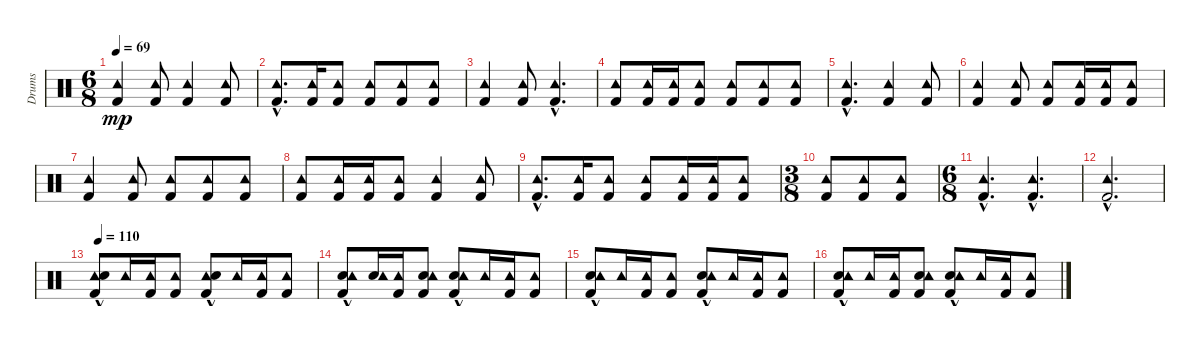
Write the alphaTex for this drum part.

\track ("Drums" "Drums") {instrument percussion}
\staff {score}
\articulation defaults
\ts (6 8)
\tempo 69
\clef neutral
\ks c
("Tambourine (hit)" "Kick (hit) 2").4{dy mp} ("Tambourine (hit)" "Kick (hit) 2").8 ("Tambourine (hit)" "Kick (hit) 2").4 ("Tambourine (hit)" "Kick (hit) 2").8 |
("Tambourine (hit)"{hac} "Kick (hit) 2"{hac}).8{d} ("Tambourine (hit)" "Kick (hit) 2").16 ("Tambourine (hit)" "Kick (hit) 2").8 ("Tambourine (hit)" "Kick (hit) 2").8 ("Tambourine (hit)" "Kick (hit) 2").8 ("Tambourine (hit)" "Kick (hit) 2").8 |
("Tambourine (hit)" "Kick (hit) 2").4 ("Tambourine (hit)" "Kick (hit) 2").8 ("Tambourine (hit)"{hac} "Kick (hit) 2"{hac}).4{d} |
("Tambourine (hit)" "Kick (hit) 2").8 ("Tambourine (hit)" "Kick (hit) 2").16 ("Tambourine (hit)" "Kick (hit) 2").16 ("Tambourine (hit)" "Kick (hit) 2").8 ("Tambourine (hit)" "Kick (hit) 2").8 ("Tambourine (hit)" "Kick (hit) 2").8 ("Tambourine (hit)" "Kick (hit) 2").8 |
("Tambourine (hit)"{hac} "Kick (hit) 2"{hac}).4{d} ("Tambourine (hit)" "Kick (hit) 2").4 ("Tambourine (hit)" "Kick (hit) 2").8 |
("Tambourine (hit)" "Kick (hit) 2").4 ("Tambourine (hit)" "Kick (hit) 2").8 ("Tambourine (hit)" "Kick (hit) 2").8 ("Tambourine (hit)" "Kick (hit) 2").16 ("Tambourine (hit)" "Kick (hit) 2").16 ("Tambourine (hit)" "Kick (hit) 2").8 |
("Tambourine (hit)" "Kick (hit) 2").4 ("Tambourine (hit)" "Kick (hit) 2").8 ("Tambourine (hit)" "Kick (hit) 2").8 ("Tambourine (hit)" "Kick (hit) 2").8 ("Tambourine (hit)" "Kick (hit) 2").8 |
("Tambourine (hit)" "Kick (hit) 2").8 ("Tambourine (hit)" "Kick (hit) 2").16 ("Tambourine (hit)" "Kick (hit) 2").16 ("Tambourine (hit)" "Kick (hit) 2").8 ("Tambourine (hit)" "Kick (hit) 2").4 ("Tambourine (hit)" "Kick (hit) 2").8 |
("Tambourine (hit)"{hac} "Kick (hit) 2"{hac}).8{d} ("Tambourine (hit)" "Kick (hit) 2").16 ("Tambourine (hit)" "Kick (hit) 2").8 ("Tambourine (hit)" "Kick (hit) 2").8 ("Tambourine (hit)" "Kick (hit) 2").16 ("Tambourine (hit)" "Kick (hit) 2").16 ("Tambourine (hit)" "Kick (hit) 2").8 |
\ts (3 8)
("Tambourine (hit)" "Kick (hit) 2").8 ("Tambourine (hit)" "Kick (hit) 2").8 ("Tambourine (hit)" "Kick (hit) 2").8 |
\ts (6 8)
("Tambourine (hit)"{hac} "Kick (hit) 2"{hac}).4{d} ("Tambourine (hit)"{hac} "Kick (hit) 2"{hac}).4{d} |
("Tambourine (hit)"{hac} "Kick (hit) 2"{hac}).2{d} |
\tempo 110
("Tambourine (hit)" "Kick (hit) 2"{hac} "Hand Clap (hit)"{hac}).8 "Tambourine (hit)".16 ("Tambourine (hit)" "Kick (hit) 2").16 ("Tambourine (hit)" "Kick (hit) 2").8 ("Tambourine (hit)" "Kick (hit) 2"{hac} "Hand Clap (hit)"{hac}).8 "Tambourine (hit)".16 ("Tambourine (hit)" "Kick (hit) 2").16 ("Tambourine (hit)" "Kick (hit) 2").8 |
("Hand Clap (hit)" "Tambourine (hit)" "Kick (hit) 2"{hac}).8 ("Hand Clap (hit)" "Tambourine (hit)").16 ("Tambourine (hit)" "Kick (hit) 2").16 ("Hand Clap (hit)" "Tambourine (hit)" "Kick (hit) 2").8 ("Hand Clap (hit)" "Tambourine (hit)" "Kick (hit) 2"{hac}).8 "Tambourine (hit)".16 ("Tambourine (hit)" "Kick (hit) 2").16 ("Tambourine (hit)" "Kick (hit) 2").8 |
("Hand Clap (hit)" "Tambourine (hit)" "Kick (hit) 2"{hac}).8 "Tambourine (hit)".16 ("Tambourine (hit)" "Kick (hit) 2").16 ("Tambourine (hit)" "Kick (hit) 2").8 ("Hand Clap (hit)" "Tambourine (hit)" "Kick (hit) 2"{hac}).8 "Tambourine (hit)".16 ("Tambourine (hit)" "Kick (hit) 2").16 ("Tambourine (hit)" "Kick (hit) 2").8 |
("Hand Clap (hit)" "Tambourine (hit)" "Kick (hit) 2"{hac}).8 "Tambourine (hit)".16 ("Tambourine (hit)" "Kick (hit) 2").16 ("Hand Clap (hit)" "Tambourine (hit)" "Kick (hit) 2").8 ("Hand Clap (hit)" "Tambourine (hit)" "Kick (hit) 2"{hac}).8 "Tambourine (hit)".16 ("Tambourine (hit)" "Kick (hit) 2").16 ("Tambourine (hit)" "Kick (hit) 2").8
